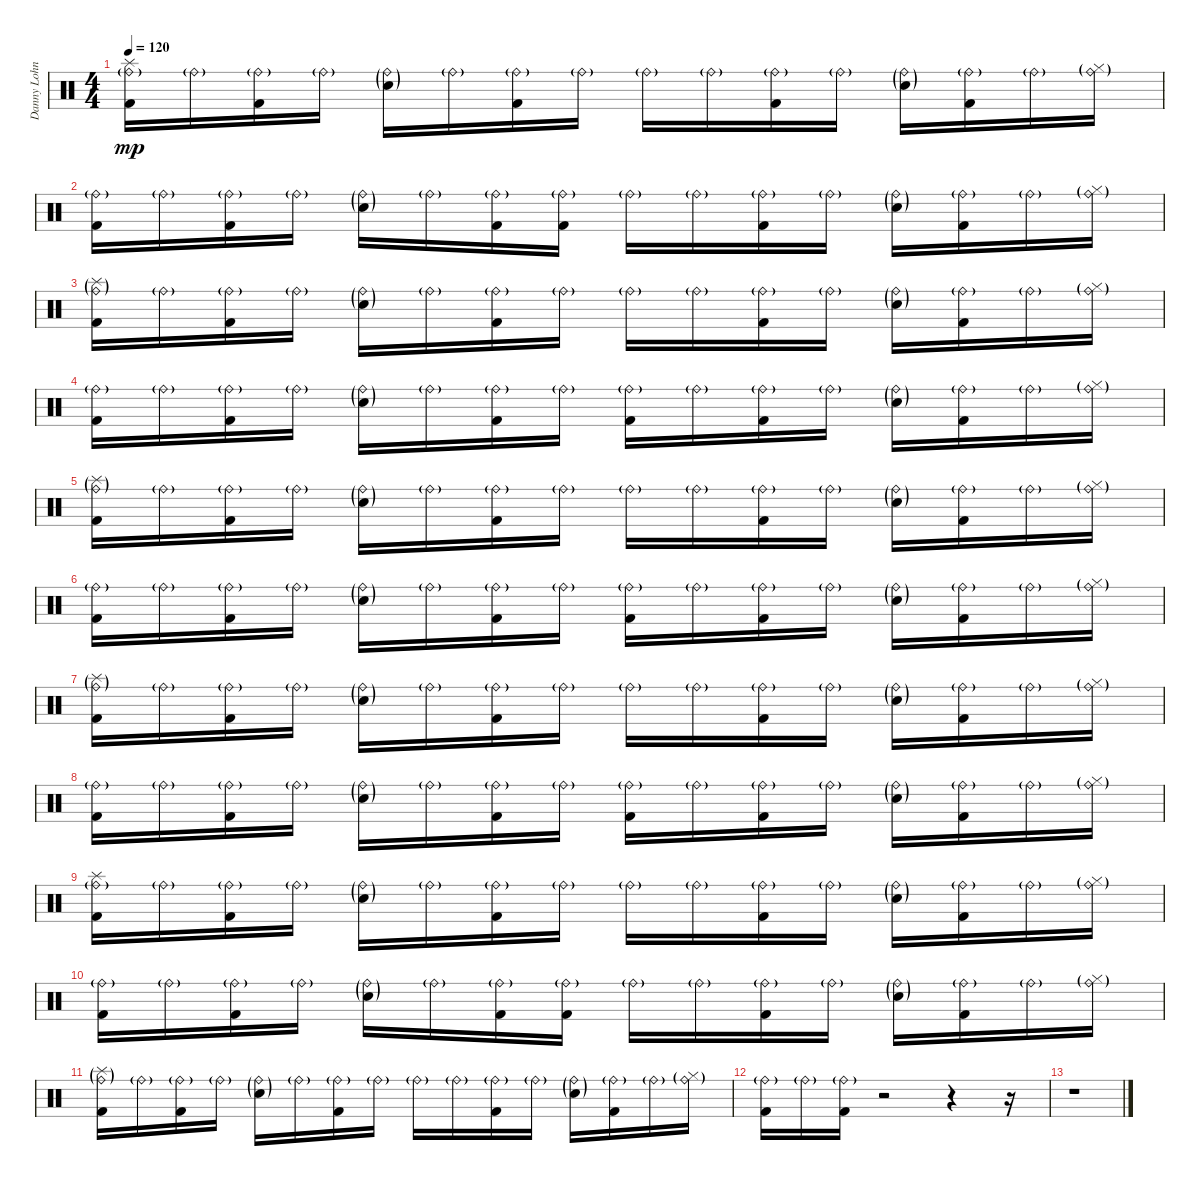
\track ("Danny Lohner" "Danny Lohn") {instrument percussion}
\staff {score}
\articulation defaults
\ts (4 4)
\tempo 120
\clef neutral
\ks c
("Ride (bell)"{g} "Splash (hit)" "Kick (hit) 2").16{dy mp} "Ride (bell)"{g}.16 ("Ride (bell)"{g} "Kick (hit) 2").16 "Ride (bell)"{g}.16 ("Ride (bell)"{g} "Electric Snare (hit)"{g}).16 "Ride (bell)"{g}.16 ("Ride (bell)"{g} "Kick (hit) 2").16 "Ride (bell)"{g}.16 "Ride (bell)"{g}.16 "Ride (bell)"{g}.16 ("Ride (bell)"{g} "Kick (hit) 2").16 "Ride (bell)"{g}.16 ("Ride (bell)"{g} "Electric Snare (hit)"{g}).16 ("Ride (bell)"{g} "Kick (hit) 2").16 "Ride (bell)"{g}.16 ("Ride (bell)"{g} "Hi-Hat (closed)"{g}).16 |
("Ride (bell)"{g} "Kick (hit) 2").16 "Ride (bell)"{g}.16 ("Ride (bell)"{g} "Kick (hit) 2").16 "Ride (bell)"{g}.16 ("Ride (bell)"{g} "Electric Snare (hit)"{g}).16 "Ride (bell)"{g}.16 ("Ride (bell)"{g} "Kick (hit) 2").16 ("Ride (bell)"{g} "Kick (hit) 2").16 "Ride (bell)"{g}.16 "Ride (bell)"{g}.16 ("Ride (bell)"{g} "Kick (hit) 2").16 "Ride (bell)"{g}.16 ("Ride (bell)"{g} "Electric Snare (hit)"{g}).16 ("Ride (bell)"{g} "Kick (hit) 2").16 "Ride (bell)"{g}.16 ("Ride (bell)"{g} "Hi-Hat (closed)"{g}).16 |
("Ride (bell)"{g} "Splash (hit)"{g} "Kick (hit) 2").16 "Ride (bell)"{g}.16 ("Ride (bell)"{g} "Kick (hit) 2").16 "Ride (bell)"{g}.16 ("Ride (bell)"{g} "Electric Snare (hit)"{g}).16 "Ride (bell)"{g}.16 ("Ride (bell)"{g} "Kick (hit) 2").16 "Ride (bell)"{g}.16 "Ride (bell)"{g}.16 "Ride (bell)"{g}.16 ("Ride (bell)"{g} "Kick (hit) 2").16 "Ride (bell)"{g}.16 ("Ride (bell)"{g} "Electric Snare (hit)"{g}).16 ("Ride (bell)"{g} "Kick (hit) 2").16 "Ride (bell)"{g}.16 ("Ride (bell)"{g} "Hi-Hat (closed)"{g}).16 |
("Ride (bell)"{g} "Kick (hit) 2").16 "Ride (bell)"{g}.16 ("Ride (bell)"{g} "Kick (hit) 2").16 "Ride (bell)"{g}.16 ("Ride (bell)"{g} "Electric Snare (hit)"{g}).16 "Ride (bell)"{g}.16 ("Ride (bell)"{g} "Kick (hit) 2").16 "Ride (bell)"{g}.16 ("Ride (bell)"{g} "Kick (hit) 2").16 "Ride (bell)"{g}.16 ("Ride (bell)"{g} "Kick (hit) 2").16 "Ride (bell)"{g}.16 ("Ride (bell)"{g} "Electric Snare (hit)"{g}).16 ("Ride (bell)"{g} "Kick (hit) 2").16 "Ride (bell)"{g}.16 ("Ride (bell)"{g} "Hi-Hat (closed)"{g}).16 |
("Ride (bell)"{g} "Splash (hit)"{g} "Kick (hit) 2").16 "Ride (bell)"{g}.16 ("Ride (bell)"{g} "Kick (hit) 2").16 "Ride (bell)"{g}.16 ("Ride (bell)"{g} "Electric Snare (hit)"{g}).16 "Ride (bell)"{g}.16 ("Ride (bell)"{g} "Kick (hit) 2").16 "Ride (bell)"{g}.16 "Ride (bell)"{g}.16 "Ride (bell)"{g}.16 ("Ride (bell)"{g} "Kick (hit) 2").16 "Ride (bell)"{g}.16 ("Ride (bell)"{g} "Electric Snare (hit)"{g}).16 ("Ride (bell)"{g} "Kick (hit) 2").16 "Ride (bell)"{g}.16 ("Ride (bell)"{g} "Hi-Hat (closed)"{g}).16 |
("Ride (bell)"{g} "Kick (hit) 2").16 "Ride (bell)"{g}.16 ("Ride (bell)"{g} "Kick (hit) 2").16 "Ride (bell)"{g}.16 ("Ride (bell)"{g} "Electric Snare (hit)"{g}).16 "Ride (bell)"{g}.16 ("Ride (bell)"{g} "Kick (hit) 2").16 "Ride (bell)"{g}.16 ("Ride (bell)"{g} "Kick (hit) 2").16 "Ride (bell)"{g}.16 ("Ride (bell)"{g} "Kick (hit) 2").16 "Ride (bell)"{g}.16 ("Ride (bell)"{g} "Electric Snare (hit)"{g}).16 ("Ride (bell)"{g} "Kick (hit) 2").16 "Ride (bell)"{g}.16 ("Ride (bell)"{g} "Hi-Hat (closed)"{g}).16 |
("Ride (bell)"{g} "Splash (hit)"{g} "Kick (hit) 2").16 "Ride (bell)"{g}.16 ("Ride (bell)"{g} "Kick (hit) 2").16 "Ride (bell)"{g}.16 ("Ride (bell)"{g} "Electric Snare (hit)"{g}).16 "Ride (bell)"{g}.16 ("Ride (bell)"{g} "Kick (hit) 2").16 "Ride (bell)"{g}.16 "Ride (bell)"{g}.16 "Ride (bell)"{g}.16 ("Ride (bell)"{g} "Kick (hit) 2").16 "Ride (bell)"{g}.16 ("Ride (bell)"{g} "Electric Snare (hit)"{g}).16 ("Ride (bell)"{g} "Kick (hit) 2").16 "Ride (bell)"{g}.16 ("Ride (bell)"{g} "Hi-Hat (closed)"{g}).16 |
("Ride (bell)"{g} "Kick (hit) 2").16 "Ride (bell)"{g}.16 ("Ride (bell)"{g} "Kick (hit) 2").16 "Ride (bell)"{g}.16 ("Ride (bell)"{g} "Electric Snare (hit)"{g}).16 "Ride (bell)"{g}.16 ("Ride (bell)"{g} "Kick (hit) 2").16 "Ride (bell)"{g}.16 ("Ride (bell)"{g} "Kick (hit) 2").16 "Ride (bell)"{g}.16 ("Ride (bell)"{g} "Kick (hit) 2").16 "Ride (bell)"{g}.16 ("Ride (bell)"{g} "Electric Snare (hit)"{g}).16 ("Ride (bell)"{g} "Kick (hit) 2").16 "Ride (bell)"{g}.16 ("Ride (bell)"{g} "Hi-Hat (closed)"{g}).16 |
("Ride (bell)"{g} "Splash (hit)" "Kick (hit) 2").16 "Ride (bell)"{g}.16 ("Ride (bell)"{g} "Kick (hit) 2").16 "Ride (bell)"{g}.16 ("Ride (bell)"{g} "Electric Snare (hit)"{g}).16 "Ride (bell)"{g}.16 ("Ride (bell)"{g} "Kick (hit) 2").16 "Ride (bell)"{g}.16 "Ride (bell)"{g}.16 "Ride (bell)"{g}.16 ("Ride (bell)"{g} "Kick (hit) 2").16 "Ride (bell)"{g}.16 ("Ride (bell)"{g} "Electric Snare (hit)"{g}).16 ("Ride (bell)"{g} "Kick (hit) 2").16 "Ride (bell)"{g}.16 ("Ride (bell)"{g} "Hi-Hat (closed)"{g}).16 |
("Ride (bell)"{g} "Kick (hit) 2").16 "Ride (bell)"{g}.16 ("Ride (bell)"{g} "Kick (hit) 2").16 "Ride (bell)"{g}.16 ("Ride (bell)"{g} "Electric Snare (hit)"{g}).16 "Ride (bell)"{g}.16 ("Ride (bell)"{g} "Kick (hit) 2").16 ("Ride (bell)"{g} "Kick (hit) 2").16 "Ride (bell)"{g}.16 "Ride (bell)"{g}.16 ("Ride (bell)"{g} "Kick (hit) 2").16 "Ride (bell)"{g}.16 ("Ride (bell)"{g} "Electric Snare (hit)"{g}).16 ("Ride (bell)"{g} "Kick (hit) 2").16 "Ride (bell)"{g}.16 ("Ride (bell)"{g} "Hi-Hat (closed)"{g}).16 |
("Ride (bell)"{g} "Splash (hit)"{g} "Kick (hit) 2").16 "Ride (bell)"{g}.16 ("Ride (bell)"{g} "Kick (hit) 2").16 "Ride (bell)"{g}.16 ("Ride (bell)"{g} "Electric Snare (hit)"{g}).16 "Ride (bell)"{g}.16 ("Ride (bell)"{g} "Kick (hit) 2").16 "Ride (bell)"{g}.16 "Ride (bell)"{g}.16 "Ride (bell)"{g}.16 ("Ride (bell)"{g} "Kick (hit) 2").16 "Ride (bell)"{g}.16 ("Ride (bell)"{g} "Electric Snare (hit)"{g}).16 ("Ride (bell)"{g} "Kick (hit) 2").16 "Ride (bell)"{g}.16 ("Ride (bell)"{g} "Hi-Hat (closed)"{g}).16 |
("Ride (bell)"{g} "Kick (hit) 2").16 "Ride (bell)"{g}.16 ("Ride (bell)"{g} "Kick (hit) 2").16 r.2 r.4 r.16 |
r.1
